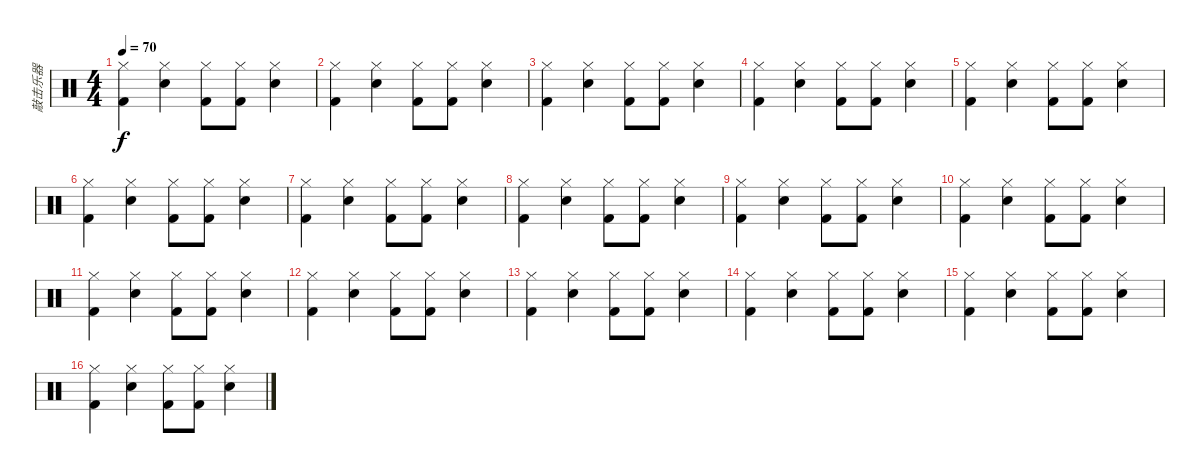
\track ("敲击乐器" "敲击乐器") {instrument percussion}
\staff {score}
\articulation defaults
\ts (4 4)
\tempo 70
\clef neutral
\ks c
("Hi-Hat (closed)" "Kick (hit) 2").4{dy f} ("Hi-Hat (closed)" "Snare (hit) 2").4 ("Hi-Hat (closed)" "Kick (hit) 2").8 ("Hi-Hat (closed)" "Kick (hit) 2").8 ("Hi-Hat (closed)" "Snare (hit) 2").4 |
("Hi-Hat (closed)" "Kick (hit) 2").4 ("Hi-Hat (closed)" "Snare (hit) 2").4 ("Hi-Hat (closed)" "Kick (hit) 2").8 ("Hi-Hat (closed)" "Kick (hit) 2").8 ("Hi-Hat (closed)" "Snare (hit) 2").4 |
("Hi-Hat (closed)" "Kick (hit) 2").4 ("Hi-Hat (closed)" "Snare (hit) 2").4 ("Hi-Hat (closed)" "Kick (hit) 2").8 ("Hi-Hat (closed)" "Kick (hit) 2").8 ("Hi-Hat (closed)" "Snare (hit) 2").4 |
("Hi-Hat (closed)" "Kick (hit) 2").4 ("Hi-Hat (closed)" "Snare (hit) 2").4 ("Hi-Hat (closed)" "Kick (hit) 2").8 ("Hi-Hat (closed)" "Kick (hit) 2").8 ("Hi-Hat (closed)" "Snare (hit) 2").4 |
("Hi-Hat (closed)" "Kick (hit) 2").4 ("Hi-Hat (closed)" "Snare (hit) 2").4 ("Hi-Hat (closed)" "Kick (hit) 2").8 ("Hi-Hat (closed)" "Kick (hit) 2").8 ("Hi-Hat (closed)" "Snare (hit) 2").4 |
("Hi-Hat (closed)" "Kick (hit) 2").4 ("Hi-Hat (closed)" "Snare (hit) 2").4 ("Hi-Hat (closed)" "Kick (hit) 2").8 ("Hi-Hat (closed)" "Kick (hit) 2").8 ("Hi-Hat (closed)" "Snare (hit) 2").4 |
("Hi-Hat (closed)" "Kick (hit) 2").4 ("Hi-Hat (closed)" "Snare (hit) 2").4 ("Hi-Hat (closed)" "Kick (hit) 2").8 ("Hi-Hat (closed)" "Kick (hit) 2").8 ("Hi-Hat (closed)" "Snare (hit) 2").4 |
("Hi-Hat (closed)" "Kick (hit) 2").4 ("Hi-Hat (closed)" "Snare (hit) 2").4 ("Hi-Hat (closed)" "Kick (hit) 2").8 ("Hi-Hat (closed)" "Kick (hit) 2").8 ("Hi-Hat (closed)" "Snare (hit) 2").4 |
("Hi-Hat (closed)" "Kick (hit) 2").4 ("Hi-Hat (closed)" "Snare (hit) 2").4 ("Hi-Hat (closed)" "Kick (hit) 2").8 ("Hi-Hat (closed)" "Kick (hit) 2").8 ("Hi-Hat (closed)" "Snare (hit) 2").4 |
("Hi-Hat (closed)" "Kick (hit) 2").4 ("Hi-Hat (closed)" "Snare (hit) 2").4 ("Hi-Hat (closed)" "Kick (hit) 2").8 ("Hi-Hat (closed)" "Kick (hit) 2").8 ("Hi-Hat (closed)" "Snare (hit) 2").4 |
("Hi-Hat (closed)" "Kick (hit) 2").4 ("Hi-Hat (closed)" "Snare (hit) 2").4 ("Hi-Hat (closed)" "Kick (hit) 2").8 ("Hi-Hat (closed)" "Kick (hit) 2").8 ("Hi-Hat (closed)" "Snare (hit) 2").4 |
("Hi-Hat (closed)" "Kick (hit) 2").4 ("Hi-Hat (closed)" "Snare (hit) 2").4 ("Hi-Hat (closed)" "Kick (hit) 2").8 ("Hi-Hat (closed)" "Kick (hit) 2").8 ("Hi-Hat (closed)" "Snare (hit) 2").4 |
("Hi-Hat (closed)" "Kick (hit) 2").4 ("Hi-Hat (closed)" "Snare (hit) 2").4 ("Hi-Hat (closed)" "Kick (hit) 2").8 ("Hi-Hat (closed)" "Kick (hit) 2").8 ("Hi-Hat (closed)" "Snare (hit) 2").4 |
("Hi-Hat (closed)" "Kick (hit) 2").4 ("Hi-Hat (closed)" "Snare (hit) 2").4 ("Hi-Hat (closed)" "Kick (hit) 2").8 ("Hi-Hat (closed)" "Kick (hit) 2").8 ("Hi-Hat (closed)" "Snare (hit) 2").4 |
("Hi-Hat (closed)" "Kick (hit) 2").4 ("Hi-Hat (closed)" "Snare (hit) 2").4 ("Hi-Hat (closed)" "Kick (hit) 2").8 ("Hi-Hat (closed)" "Kick (hit) 2").8 ("Hi-Hat (closed)" "Snare (hit) 2").4 |
("Hi-Hat (closed)" "Kick (hit) 2").4 ("Hi-Hat (closed)" "Snare (hit) 2").4 ("Hi-Hat (closed)" "Kick (hit) 2").8 ("Hi-Hat (closed)" "Kick (hit) 2").8 ("Hi-Hat (closed)" "Snare (hit) 2").4
